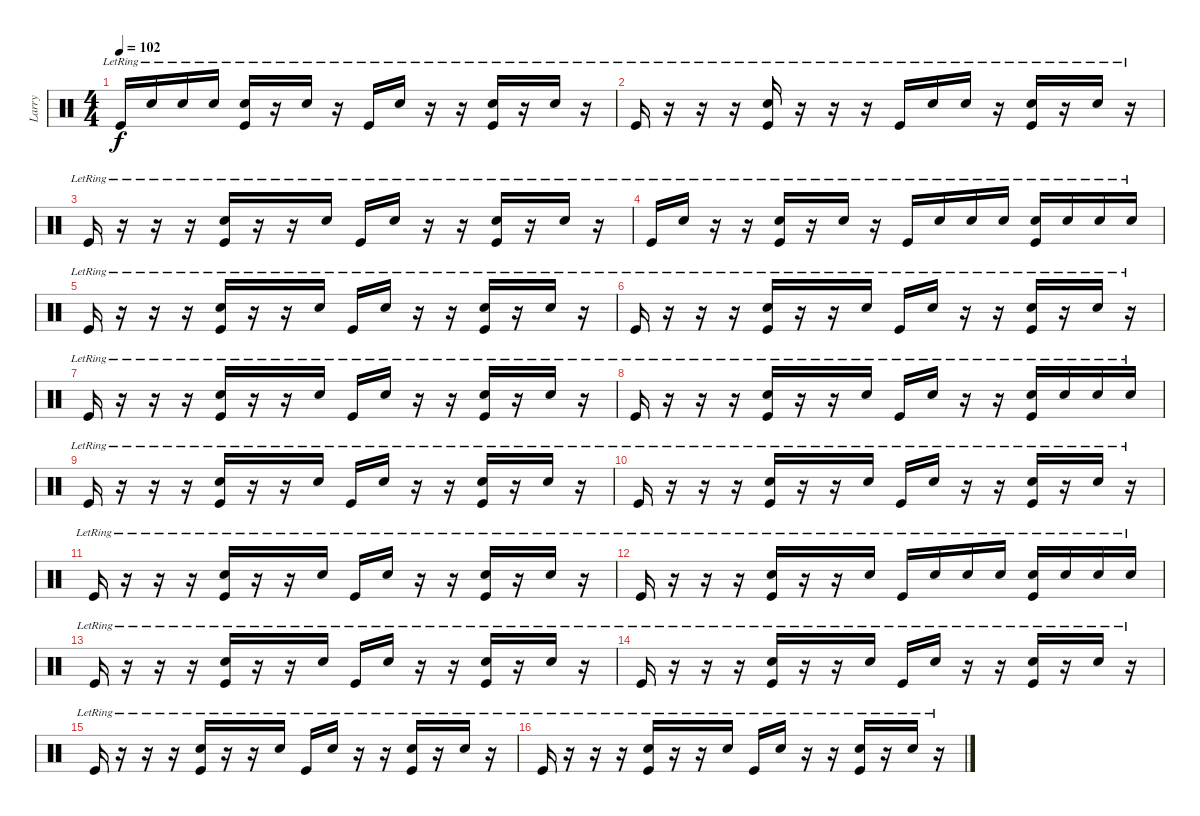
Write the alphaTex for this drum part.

\track ("Larry" "Larry") {instrument percussion}
\staff {score}
\articulation defaults
\ts (4 4)
\tempo 102
\clef neutral
\ks c "Kick (hit)"{lr}.16{dy f} "Snare (hit) 2"{lr}.16 "Snare (hit) 2"{lr}.16 "Snare (hit) 2"{lr}.16
("Snare (hit) 2"{lr} "Kick (hit)"{lr}).16 r.16 "Snare (hit) 2"{lr}.16 r.16 "Kick (hit)"{lr}.16 "Snare (hit) 2"{lr}.16 r.16 r.16 ("Snare (hit) 2"{lr} "Kick (hit)"{lr}).16 r.16 "Snare (hit) 2"{lr}.16 r.16 |
"Kick (hit)"{lr}.16 r.16 r.16 r.16 ("Snare (hit) 2"{lr} "Kick (hit)"{lr}).16 r.16 r.16 r.16 "Kick (hit)"{lr}.16 "Snare (hit) 2"{lr}.16 "Snare (hit) 2"{lr}.16 r.16 ("Snare (hit) 2"{lr} "Kick (hit)"{lr}).16 r.16 "Snare (hit) 2"{lr}.16 r.16 |
"Kick (hit)"{lr}.16 r.16 r.16 r.16 ("Snare (hit) 2"{lr} "Kick (hit)"{lr}).16 r.16 r.16 "Snare (hit) 2"{lr}.16 "Kick (hit)"{lr}.16 "Snare (hit) 2"{lr}.16 r.16 r.16 ("Snare (hit) 2"{lr} "Kick (hit)"{lr}).16 r.16 "Snare (hit) 2"{lr}.16 r.16 |
"Kick (hit)"{lr}.16 "Snare (hit) 2"{lr}.16 r.16 r.16 ("Snare (hit) 2"{lr} "Kick (hit)"{lr}).16 r.16 "Snare (hit) 2"{lr}.16 r.16 "Kick (hit)"{lr}.16 "Snare (hit) 2"{lr}.16 "Snare (hit) 2"{lr}.16 "Snare (hit) 2"{lr}.16 ("Snare (hit) 2"{lr} "Kick (hit)"{lr}).16 "Snare (hit) 2"{lr}.16 "Snare (hit) 2"{lr}.16 "Snare (hit) 2"{lr}.16 |
"Kick (hit)"{lr}.16 r.16 r.16 r.16 ("Snare (hit) 2"{lr} "Kick (hit)"{lr}).16 r.16 r.16 "Snare (hit) 2"{lr}.16 "Kick (hit)"{lr}.16 "Snare (hit) 2"{lr}.16 r.16 r.16 ("Snare (hit) 2"{lr} "Kick (hit)"{lr}).16 r.16 "Snare (hit) 2"{lr}.16 r.16 |
"Kick (hit)"{lr}.16 r.16 r.16 r.16 ("Snare (hit) 2"{lr} "Kick (hit)"{lr}).16 r.16 r.16 "Snare (hit) 2"{lr}.16 "Kick (hit)"{lr}.16 "Snare (hit) 2"{lr}.16 r.16 r.16 ("Snare (hit) 2"{lr} "Kick (hit)"{lr}).16 r.16 "Snare (hit) 2"{lr}.16 r.16 |
"Kick (hit)"{lr}.16 r.16 r.16 r.16 ("Snare (hit) 2"{lr} "Kick (hit)"{lr}).16 r.16 r.16 "Snare (hit) 2"{lr}.16 "Kick (hit)"{lr}.16 "Snare (hit) 2"{lr}.16 r.16 r.16 ("Snare (hit) 2"{lr} "Kick (hit)"{lr}).16 r.16 "Snare (hit) 2"{lr}.16 r.16 |
"Kick (hit)"{lr}.16 r.16 r.16 r.16 ("Snare (hit) 2"{lr} "Kick (hit)"{lr}).16 r.16 r.16 "Snare (hit) 2"{lr}.16 "Kick (hit)"{lr}.16 "Snare (hit) 2"{lr}.16 r.16 r.16 ("Snare (hit) 2"{lr} "Kick (hit)"{lr}).16 "Snare (hit) 2"{lr}.16 "Snare (hit) 2"{lr}.16 "Snare (hit) 2"{lr}.16 |
"Kick (hit)"{lr}.16 r.16 r.16 r.16 ("Snare (hit) 2"{lr} "Kick (hit)"{lr}).16 r.16 r.16 "Snare (hit) 2"{lr}.16 "Kick (hit)"{lr}.16 "Snare (hit) 2"{lr}.16 r.16 r.16 ("Snare (hit) 2"{lr} "Kick (hit)"{lr}).16 r.16 "Snare (hit) 2"{lr}.16 r.16 |
"Kick (hit)"{lr}.16 r.16 r.16 r.16 ("Snare (hit) 2"{lr} "Kick (hit)"{lr}).16 r.16 r.16 "Snare (hit) 2"{lr}.16 "Kick (hit)"{lr}.16 "Snare (hit) 2"{lr}.16 r.16 r.16 ("Snare (hit) 2"{lr} "Kick (hit)"{lr}).16 r.16 "Snare (hit) 2"{lr}.16 r.16 |
"Kick (hit)"{lr}.16 r.16 r.16 r.16 ("Snare (hit) 2"{lr} "Kick (hit)"{lr}).16 r.16 r.16 "Snare (hit) 2"{lr}.16 "Kick (hit)"{lr}.16 "Snare (hit) 2"{lr}.16 r.16 r.16 ("Snare (hit) 2"{lr} "Kick (hit)"{lr}).16 r.16 "Snare (hit) 2"{lr}.16 r.16 |
"Kick (hit)"{lr}.16 r.16 r.16 r.16 ("Snare (hit) 2"{lr} "Kick (hit)"{lr}).16 r.16 r.16 "Snare (hit) 2"{lr}.16 "Kick (hit)"{lr}.16 "Snare (hit) 2"{lr}.16 "Snare (hit) 2"{lr}.16 "Snare (hit) 2"{lr}.16 ("Snare (hit) 2"{lr} "Kick (hit)"{lr}).16 "Snare (hit) 2"{lr}.16 "Snare (hit) 2"{lr}.16 "Snare (hit) 2"{lr}.16 |
"Kick (hit)"{lr}.16 r.16 r.16 r.16 ("Snare (hit) 2"{lr} "Kick (hit)"{lr}).16 r.16 r.16 "Snare (hit) 2"{lr}.16 "Kick (hit)"{lr}.16 "Snare (hit) 2"{lr}.16 r.16 r.16 ("Snare (hit) 2"{lr} "Kick (hit)"{lr}).16 r.16 "Snare (hit) 2"{lr}.16 r.16 |
"Kick (hit)"{lr}.16 r.16 r.16 r.16 ("Snare (hit) 2"{lr} "Kick (hit)"{lr}).16 r.16 r.16 "Snare (hit) 2"{lr}.16 "Kick (hit)"{lr}.16 "Snare (hit) 2"{lr}.16 r.16 r.16 ("Snare (hit) 2"{lr} "Kick (hit)"{lr}).16 r.16 "Snare (hit) 2"{lr}.16 r.16 |
"Kick (hit)"{lr}.16 r.16 r.16 r.16 ("Snare (hit) 2"{lr} "Kick (hit)"{lr}).16 r.16 r.16 "Snare (hit) 2"{lr}.16 "Kick (hit)"{lr}.16 "Snare (hit) 2"{lr}.16 r.16 r.16 ("Snare (hit) 2"{lr} "Kick (hit)"{lr}).16 r.16 "Snare (hit) 2"{lr}.16 r.16 |
"Kick (hit)"{lr}.16 r.16 r.16 r.16 ("Snare (hit) 2"{lr} "Kick (hit)"{lr}).16 r.16 r.16 "Snare (hit) 2"{lr}.16 "Kick (hit)"{lr}.16 "Snare (hit) 2"{lr}.16 r.16 r.16 ("Snare (hit) 2"{lr} "Kick (hit)"{lr}).16 r.16 "Snare (hit) 2"{lr}.16 r.16
